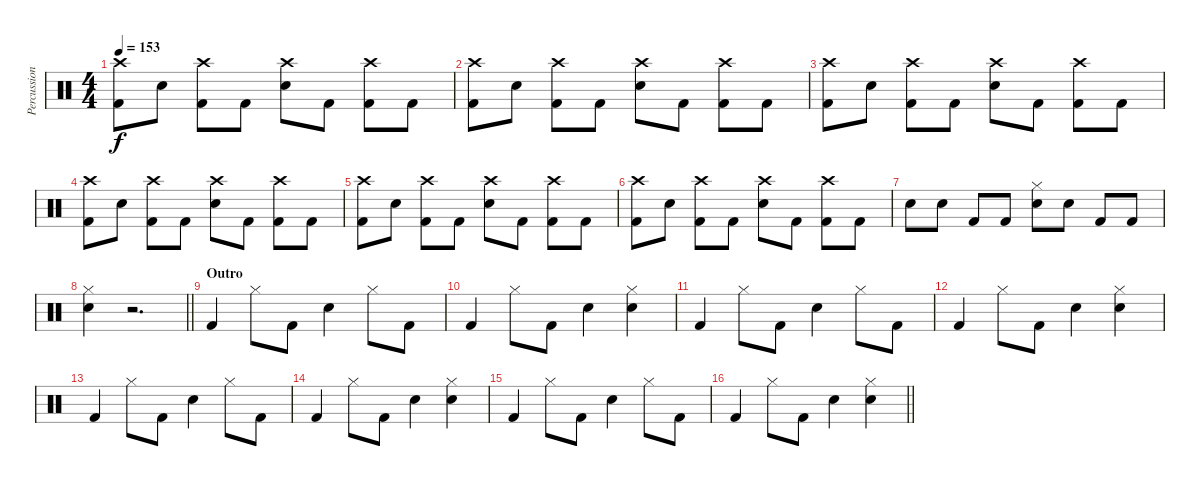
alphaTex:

\track ("Percussion" "Percussion") {instrument percussion}
\staff {score}
\articulation defaults
\ts (4 4)
\tempo 153
\clef neutral
\ks c
("Kick (hit) 2" "Crash high (hit)").8{dy f} "Snare (hit) 2".8 ("Kick (hit) 2" "Crash high (hit)").8 "Kick (hit) 2".8 ("Snare (hit) 2" "Crash high (hit)").8 "Kick (hit) 2".8 ("Kick (hit) 2" "Crash high (hit)").8 "Kick (hit) 2".8 |
("Kick (hit) 2" "Crash high (hit)").8 "Snare (hit) 2".8 ("Kick (hit) 2" "Crash high (hit)").8 "Kick (hit) 2".8 ("Snare (hit) 2" "Crash high (hit)").8 "Kick (hit) 2".8 ("Kick (hit) 2" "Crash high (hit)").8 "Kick (hit) 2".8 |
("Kick (hit) 2" "Crash high (hit)").8 "Snare (hit) 2".8 ("Kick (hit) 2" "Crash high (hit)").8 "Kick (hit) 2".8 ("Snare (hit) 2" "Crash high (hit)").8 "Kick (hit) 2".8 ("Kick (hit) 2" "Crash high (hit)").8 "Kick (hit) 2".8 |
("Kick (hit) 2" "Crash high (hit)").8 "Snare (hit) 2".8 ("Kick (hit) 2" "Crash high (hit)").8 "Kick (hit) 2".8 ("Snare (hit) 2" "Crash high (hit)").8 "Kick (hit) 2".8 ("Kick (hit) 2" "Crash high (hit)").8 "Kick (hit) 2".8 |
("Kick (hit) 2" "Crash high (hit)").8 "Snare (hit) 2".8 ("Kick (hit) 2" "Crash high (hit)").8 "Kick (hit) 2".8 ("Snare (hit) 2" "Crash high (hit)").8 "Kick (hit) 2".8 ("Kick (hit) 2" "Crash high (hit)").8 "Kick (hit) 2".8 |
("Kick (hit) 2" "Crash high (hit)").8 "Snare (hit) 2".8 ("Kick (hit) 2" "Crash high (hit)").8 "Kick (hit) 2".8 ("Snare (hit) 2" "Crash high (hit)").8 "Kick (hit) 2".8 ("Kick (hit) 2" "Crash high (hit)").8 "Kick (hit) 2".8 |
"Snare (hit) 2".8 "Snare (hit) 2".8 "Kick (hit) 2".8 "Kick (hit) 2".8 ("Snare (hit) 2" "Hi-Hat (closed)").8 "Snare (hit) 2".8 "Kick (hit) 2".8 "Kick (hit) 2".8 |
\barLineRight lightlight
("Snare (hit) 2" "Hi-Hat (closed)").4 r.2{d} |
\section ("" "Outro")
"Kick (hit) 2".4 "Hi-Hat (closed)".8 "Kick (hit) 2".8 "Snare (hit) 2".4 "Hi-Hat (closed)".8 "Kick (hit) 2".8 |
"Kick (hit) 2".4 "Hi-Hat (closed)".8 "Kick (hit) 2".8 "Snare (hit) 2".4 ("Snare (hit) 2" "Hi-Hat (closed)").4 |
"Kick (hit) 2".4 "Hi-Hat (closed)".8 "Kick (hit) 2".8 "Snare (hit) 2".4 "Hi-Hat (closed)".8 "Kick (hit) 2".8 |
"Kick (hit) 2".4 "Hi-Hat (closed)".8 "Kick (hit) 2".8 "Snare (hit) 2".4 ("Snare (hit) 2" "Hi-Hat (closed)").4 |
"Kick (hit) 2".4 "Hi-Hat (closed)".8 "Kick (hit) 2".8 "Snare (hit) 2".4 "Hi-Hat (closed)".8 "Kick (hit) 2".8 |
"Kick (hit) 2".4 "Hi-Hat (closed)".8 "Kick (hit) 2".8 "Snare (hit) 2".4 ("Snare (hit) 2" "Hi-Hat (closed)").4 |
"Kick (hit) 2".4 "Hi-Hat (closed)".8 "Kick (hit) 2".8 "Snare (hit) 2".4 "Hi-Hat (closed)".8 "Kick (hit) 2".8 |
\barLineRight lightlight "Kick (hit) 2".4 "Hi-Hat (closed)".8 "Kick (hit) 2".8 "Snare (hit) 2".4
("Snare (hit) 2" "Hi-Hat (closed)").4
